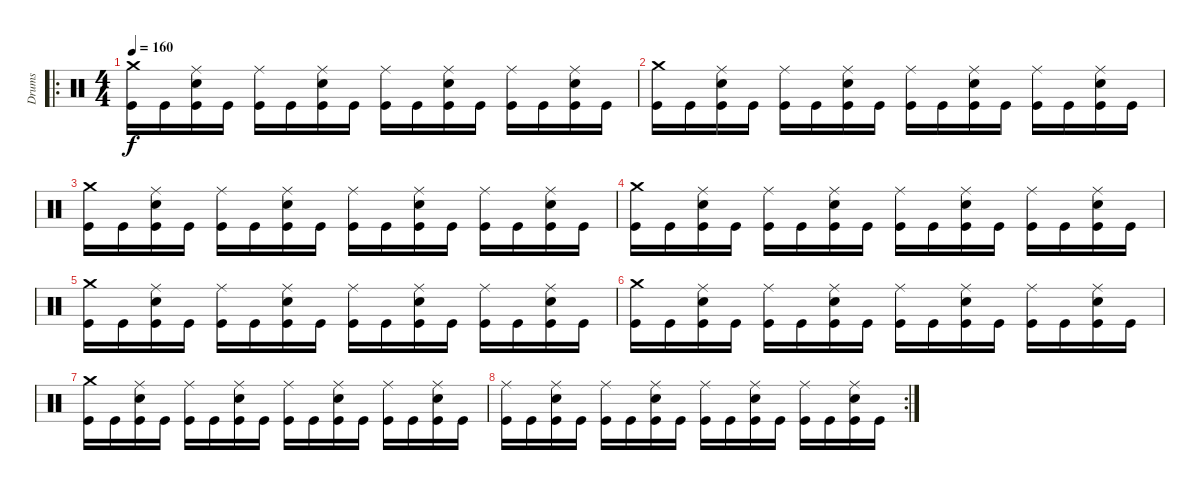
\track ("Drums" "Drums") {instrument percussion}
\staff {score}
\articulation defaults
\ro
\ts (4 4)
\tempo 160
\clef neutral
\ks c
("Crash medium (hit)" "Kick (hit)").16{dy f} "Kick (hit)".16 ("Ride (middle)" "Snare (hit) 2" "Kick (hit)").16 "Kick (hit)".16 ("Ride (middle)" "Kick (hit)").16 "Kick (hit)".16 ("Ride (middle)" "Snare (hit) 2" "Kick (hit)").16 "Kick (hit)".16 ("Ride (middle)" "Kick (hit)").16 "Kick (hit)".16 ("Ride (middle)" "Snare (hit) 2" "Kick (hit)").16 "Kick (hit)".16 ("Ride (middle)" "Kick (hit)").16 "Kick (hit)".16 ("Ride (middle)" "Snare (hit) 2" "Kick (hit)").16 "Kick (hit)".16 |
("Crash medium (hit)" "Kick (hit)").16 "Kick (hit)".16 ("Ride (middle)" "Snare (hit) 2" "Kick (hit)").16 "Kick (hit)".16 ("Ride (middle)" "Kick (hit)").16 "Kick (hit)".16 ("Ride (middle)" "Snare (hit) 2" "Kick (hit)").16 "Kick (hit)".16 ("Ride (middle)" "Kick (hit)").16 "Kick (hit)".16 ("Ride (middle)" "Snare (hit) 2" "Kick (hit)").16 "Kick (hit)".16 ("Ride (middle)" "Kick (hit)").16 "Kick (hit)".16 ("Ride (middle)" "Snare (hit) 2" "Kick (hit)").16 "Kick (hit)".16 |
("Crash medium (hit)" "Kick (hit)").16 "Kick (hit)".16 ("Ride (middle)" "Snare (hit) 2" "Kick (hit)").16 "Kick (hit)".16 ("Ride (middle)" "Kick (hit)").16 "Kick (hit)".16 ("Ride (middle)" "Snare (hit) 2" "Kick (hit)").16 "Kick (hit)".16 ("Ride (middle)" "Kick (hit)").16 "Kick (hit)".16 ("Ride (middle)" "Snare (hit) 2" "Kick (hit)").16 "Kick (hit)".16 ("Ride (middle)" "Kick (hit)").16 "Kick (hit)".16 ("Ride (middle)" "Snare (hit) 2" "Kick (hit)").16 "Kick (hit)".16 |
("Crash medium (hit)" "Kick (hit)").16 "Kick (hit)".16 ("Ride (middle)" "Snare (hit) 2" "Kick (hit)").16 "Kick (hit)".16 ("Ride (middle)" "Kick (hit)").16 "Kick (hit)".16 ("Ride (middle)" "Snare (hit) 2" "Kick (hit)").16 "Kick (hit)".16 ("Ride (middle)" "Kick (hit)").16 "Kick (hit)".16 ("Ride (middle)" "Snare (hit) 2" "Kick (hit)").16 "Kick (hit)".16 ("Ride (middle)" "Kick (hit)").16 "Kick (hit)".16 ("Ride (middle)" "Snare (hit) 2" "Kick (hit)").16 "Kick (hit)".16 |
("Crash medium (hit)" "Kick (hit)").16 "Kick (hit)".16 ("Ride (middle)" "Snare (hit) 2" "Kick (hit)").16 "Kick (hit)".16 ("Ride (middle)" "Kick (hit)").16 "Kick (hit)".16 ("Ride (middle)" "Snare (hit) 2" "Kick (hit)").16 "Kick (hit)".16 ("Ride (middle)" "Kick (hit)").16 "Kick (hit)".16 ("Ride (middle)" "Snare (hit) 2" "Kick (hit)").16 "Kick (hit)".16 ("Ride (middle)" "Kick (hit)").16 "Kick (hit)".16 ("Ride (middle)" "Snare (hit) 2" "Kick (hit)").16 "Kick (hit)".16 |
("Crash medium (hit)" "Kick (hit)").16 "Kick (hit)".16 ("Ride (middle)" "Snare (hit) 2" "Kick (hit)").16 "Kick (hit)".16 ("Ride (middle)" "Kick (hit)").16 "Kick (hit)".16 ("Ride (middle)" "Snare (hit) 2" "Kick (hit)").16 "Kick (hit)".16 ("Ride (middle)" "Kick (hit)").16 "Kick (hit)".16 ("Ride (middle)" "Snare (hit) 2" "Kick (hit)").16 "Kick (hit)".16 ("Ride (middle)" "Kick (hit)").16 "Kick (hit)".16 ("Ride (middle)" "Snare (hit) 2" "Kick (hit)").16 "Kick (hit)".16 |
("Crash medium (hit)" "Kick (hit)").16 "Kick (hit)".16 ("Ride (middle)" "Snare (hit) 2" "Kick (hit)").16 "Kick (hit)".16 ("Ride (middle)" "Kick (hit)").16 "Kick (hit)".16 ("Ride (middle)" "Snare (hit) 2" "Kick (hit)").16 "Kick (hit)".16 ("Ride (middle)" "Kick (hit)").16 "Kick (hit)".16 ("Ride (middle)" "Snare (hit) 2" "Kick (hit)").16 "Kick (hit)".16 ("Ride (middle)" "Kick (hit)").16 "Kick (hit)".16 ("Ride (middle)" "Snare (hit) 2" "Kick (hit)").16 "Kick (hit)".16 |
\rc 2
("Ride (middle)" "Kick (hit)").16 "Kick (hit)".16 ("Ride (middle)" "Snare (hit) 2" "Kick (hit)").16 "Kick (hit)".16 ("Ride (middle)" "Kick (hit)").16 "Kick (hit)".16 ("Ride (middle)" "Snare (hit) 2" "Kick (hit)").16 "Kick (hit)".16 ("Ride (middle)" "Kick (hit)").16 "Kick (hit)".16 ("Ride (middle)" "Snare (hit) 2" "Kick (hit)").16 "Kick (hit)".16 ("Ride (middle)" "Kick (hit)").16 "Kick (hit)".16 ("Ride (middle)" "Snare (hit) 2" "Kick (hit)").16 "Kick (hit)".16
